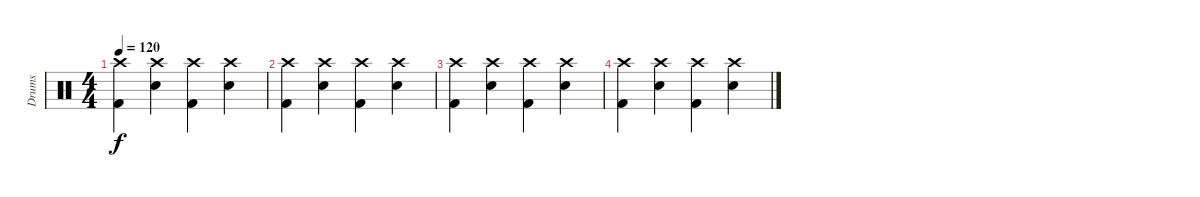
\track ("Drums" "Drums") {instrument percussion}
\staff {score}
\articulation defaults
\ts (4 4)
\tempo 120
\clef neutral
\ks c
("Crash high (hit)" "Kick (hit) 2").4{dy f} ("Electric Snare (hit)" "Crash high (hit)").4 ("Crash high (hit)" "Kick (hit) 2").4 ("Electric Snare (hit)" "Crash high (hit)").4 |
("Crash high (hit)" "Kick (hit) 2").4 ("Electric Snare (hit)" "Crash high (hit)").4 ("Crash high (hit)" "Kick (hit) 2").4 ("Electric Snare (hit)" "Crash high (hit)").4 |
("Crash high (hit)" "Kick (hit) 2").4 ("Electric Snare (hit)" "Crash high (hit)").4 ("Crash high (hit)" "Kick (hit) 2").4 ("Electric Snare (hit)" "Crash high (hit)").4 |
("Crash high (hit)" "Kick (hit) 2").4 ("Electric Snare (hit)" "Crash high (hit)").4 ("Crash high (hit)" "Kick (hit) 2").4 ("Electric Snare (hit)" "Crash high (hit)").4
